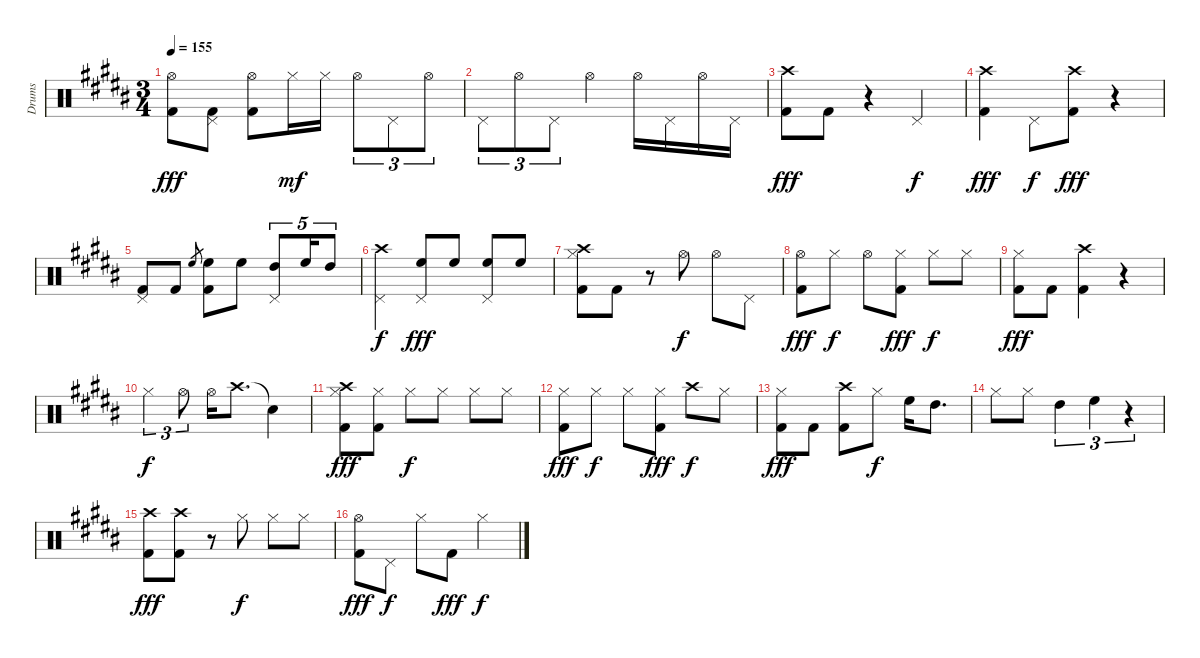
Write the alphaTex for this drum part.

\track ("Drums" "Drums") {instrument percussion}
\staff {score}
\articulation defaults
\ts (3 4)
\tempo 155
\clef neutral
\ks b
("Hi-Hat (open)" "Kick (hit) 2").8{dy fff} ("Pedal Hi-Hat (hit)" "Kick (hit) 2").8 ("Hi-Hat (open)" "Kick (hit) 2").8 "Hi-Hat (closed)".16{dy mf} "Hi-Hat (closed)".16 "Hi-Hat (open)".8{tu (3 2)} "Pedal Hi-Hat (hit)".8{tu (3 2)} "Hi-Hat (open)".8{tu (3 2)} |
"Pedal Hi-Hat (hit)".8{tu (3 2)} "Hi-Hat (open)".8{tu (3 2)} "Pedal Hi-Hat (hit)".8{tu (3 2)} "Hi-Hat (open)".4 "Hi-Hat (open)".16 "Pedal Hi-Hat (hit)".16 "Hi-Hat (open)".16 "Pedal Hi-Hat (hit)".16 |
("Crash high (hit)" "Kick (hit) 2").8{dy fff} "Kick (hit) 2".8 r.4 "Pedal Hi-Hat (hit)".4{dy f} |
("Crash high (hit)" "Kick (hit) 2").4{dy fff} "Pedal Hi-Hat (hit)".8{dy f} ("Crash high (hit)" "Kick (hit) 2").8{dy fff} r.4 |
("Pedal Hi-Hat (hit)" "Kick (hit) 2").8 "Kick (hit) 2".8 "High Floor Tom (hit)".8{gr} ("High Floor Tom (hit)" "Kick (hit) 2").8 "High Floor Tom (hit)".8 ("Pedal Hi-Hat (hit)" "High Tom (hit)").8{tu (5 4)} "High Floor Tom (hit)".16{tu (5 4)} "High Tom (hit)".8{tu (5 4)} |
("Pedal Hi-Hat (hit)" "Crash high (hit)").4{dy f} ("Pedal Hi-Hat (hit)" "High Floor Tom (hit)").8{dy fff} "High Floor Tom (hit)".8 ("Pedal Hi-Hat (hit)" "High Floor Tom (hit)").8 "High Floor Tom (hit)".8 |
("Hi-Hat (closed)" "Crash high (hit)" "Kick (hit) 2").8 "Kick (hit) 2".8 r.8 "Hi-Hat (open)".8{dy f} "Hi-Hat (open)".8 "Pedal Hi-Hat (hit)".8 |
("Hi-Hat (open)" "Kick (hit) 2").8{dy fff} "Hi-Hat (closed)".8{dy f} "Hi-Hat (open)".8 ("Hi-Hat (closed)" "Kick (hit) 2").8{dy fff} "Hi-Hat (closed)".8{dy f} "Hi-Hat (closed)".8 |
("Hi-Hat (closed)" "Kick (hit) 2").8{dy fff} "Kick (hit) 2".8 ("Crash high (hit)" "Kick (hit) 2").4 r.4 |
"Hi-Hat (closed)".4{tu (3 2) dy f} "Hi-Hat (open)".8{tu (3 2)} "Hi-Hat (open)".16 "Crash high (hit)".8{d} "Snare (hit)"{t}.4 |
("Hi-Hat (closed)" "Crash high (hit)" "Kick (hit) 2").8{dy fff} ("Hi-Hat (closed)" "Kick (hit) 2").8 "Hi-Hat (closed)".8{dy f} "Hi-Hat (closed)".8 "Hi-Hat (closed)".8 "Hi-Hat (closed)".8 |
("Hi-Hat (closed)" "Kick (hit) 2").8{dy fff} "Hi-Hat (closed)".8{dy f} "Hi-Hat (closed)".8 ("Hi-Hat (closed)" "Kick (hit) 2").8{dy fff} "Crash high (hit)".8{dy f} "Hi-Hat (closed)".8 |
("Hi-Hat (closed)" "Kick (hit) 2").8{dy fff} "Kick (hit) 2".8 ("Crash high (hit)" "Kick (hit) 2").8 "Hi-Hat (closed)".8{dy f} "High Floor Tom (hit)".16 "High Tom (hit)".8{d} |
"Hi-Hat (closed)".8 "Hi-Hat (closed)".8 "High Tom (hit)".4{tu (3 2)} "High Floor Tom (hit)".4{tu (3 2)} r.4{tu (3 2)} |
("Crash high (hit)" "Kick (hit) 2").8{dy fff} ("Crash high (hit)" "Kick (hit) 2").8 r.8 "Hi-Hat (closed)".8{dy f} "Hi-Hat (closed)".8 "Hi-Hat (closed)".8 |
("Hi-Hat (open)" "Kick (hit) 2").8{dy fff} "Pedal Hi-Hat (hit)".8{dy f} "Hi-Hat (closed)".8 "Kick (hit) 2".8{dy fff} "Hi-Hat (closed)".4{dy f}
